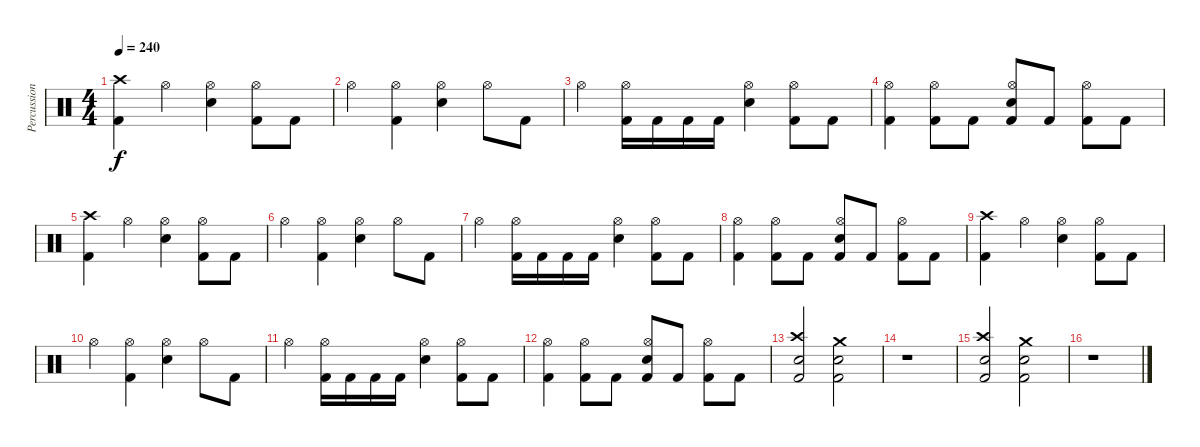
\track ("Percussion" "Percussion") {instrument percussion}
\staff {score}
\articulation defaults
\ts (4 4)
\tempo 240
\clef neutral
\ks c
("Kick (hit) 2" "Crash high (hit)").4{dy f} "Hi-Hat (open)".4 ("Electric Snare (hit)" "Hi-Hat (open)").4 ("Kick (hit) 2" "Hi-Hat (open)").8 "Kick (hit) 2".8 |
"Hi-Hat (open)".4 ("Kick (hit) 2" "Hi-Hat (open)").4 ("Electric Snare (hit)" "Hi-Hat (open)").4 "Hi-Hat (open)".8 "Kick (hit) 2".8 |
"Hi-Hat (open)".4 ("Kick (hit) 2" "Hi-Hat (open)").16 "Kick (hit) 2".16 "Kick (hit) 2".16 "Kick (hit) 2".16 ("Electric Snare (hit)" "Hi-Hat (open)").4 ("Kick (hit) 2" "Hi-Hat (open)").8 "Kick (hit) 2".8 |
("Kick (hit) 2" "Hi-Hat (open)").4 ("Kick (hit) 2" "Hi-Hat (open)").8 "Kick (hit) 2".8 ("Kick (hit) 2" "Electric Snare (hit)" "Hi-Hat (open)").8 "Kick (hit) 2".8 ("Kick (hit) 2" "Hi-Hat (open)").8 "Kick (hit) 2".8 |
("Kick (hit) 2" "Crash high (hit)").4 "Hi-Hat (open)".4 ("Electric Snare (hit)" "Hi-Hat (open)").4 ("Kick (hit) 2" "Hi-Hat (open)").8 "Kick (hit) 2".8 |
"Hi-Hat (open)".4 ("Kick (hit) 2" "Hi-Hat (open)").4 ("Electric Snare (hit)" "Hi-Hat (open)").4 "Hi-Hat (open)".8 "Kick (hit) 2".8 |
"Hi-Hat (open)".4 ("Kick (hit) 2" "Hi-Hat (open)").16 "Kick (hit) 2".16 "Kick (hit) 2".16 "Kick (hit) 2".16 ("Electric Snare (hit)" "Hi-Hat (open)").4 ("Kick (hit) 2" "Hi-Hat (open)").8 "Kick (hit) 2".8 |
("Kick (hit) 2" "Hi-Hat (open)").4 ("Kick (hit) 2" "Hi-Hat (open)").8 "Kick (hit) 2".8 ("Kick (hit) 2" "Electric Snare (hit)" "Hi-Hat (open)").8 "Kick (hit) 2".8 ("Kick (hit) 2" "Hi-Hat (open)").8 "Kick (hit) 2".8 |
("Kick (hit) 2" "Crash high (hit)").4 "Hi-Hat (open)".4 ("Electric Snare (hit)" "Hi-Hat (open)").4 ("Kick (hit) 2" "Hi-Hat (open)").8 "Kick (hit) 2".8 |
"Hi-Hat (open)".4 ("Kick (hit) 2" "Hi-Hat (open)").4 ("Electric Snare (hit)" "Hi-Hat (open)").4 "Hi-Hat (open)".8 "Kick (hit) 2".8 |
"Hi-Hat (open)".4 ("Kick (hit) 2" "Hi-Hat (open)").16 "Kick (hit) 2".16 "Kick (hit) 2".16 "Kick (hit) 2".16 ("Electric Snare (hit)" "Hi-Hat (open)").4 ("Kick (hit) 2" "Hi-Hat (open)").8 "Kick (hit) 2".8 |
("Kick (hit) 2" "Hi-Hat (open)").4 ("Kick (hit) 2" "Hi-Hat (open)").8 "Kick (hit) 2".8 ("Kick (hit) 2" "Electric Snare (hit)" "Hi-Hat (open)").8 "Kick (hit) 2".8 ("Kick (hit) 2" "Hi-Hat (open)").8 "Kick (hit) 2".8 |
("Kick (hit) 2" "Electric Snare (hit)" "Crash high (hit)").2 ("Kick (hit) 2" "Electric Snare (hit)" "Crash medium (hit)").2 |
r.1 |
("Kick (hit) 2" "Electric Snare (hit)" "Crash high (hit)").2 ("Kick (hit) 2" "Electric Snare (hit)" "Crash medium (hit)").2 |
r.1
